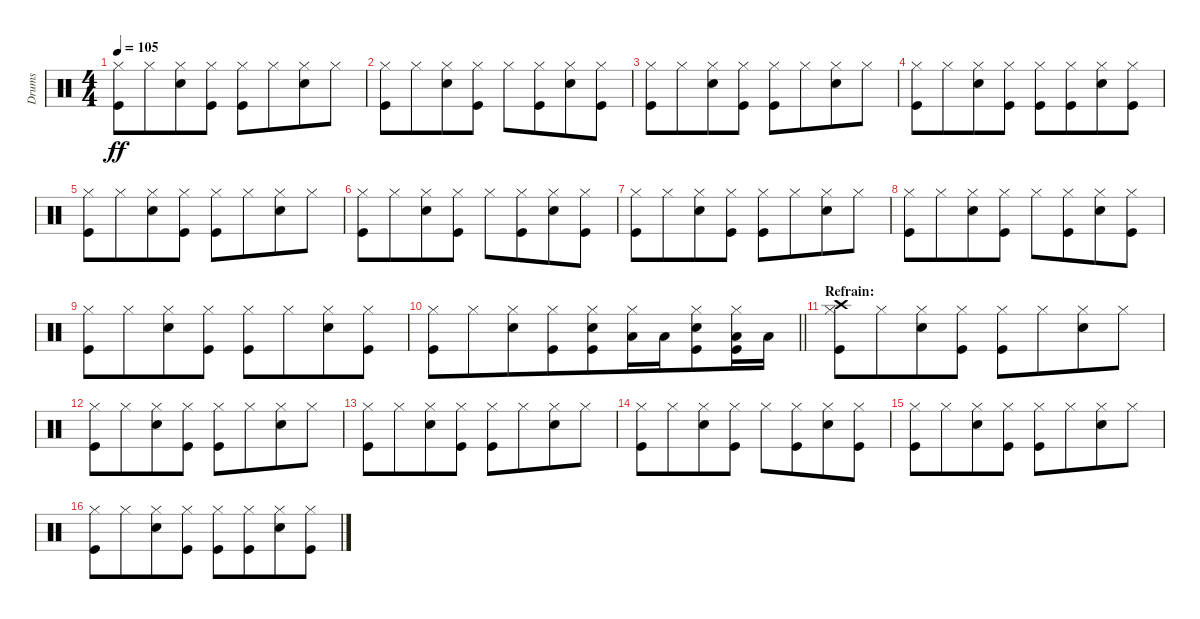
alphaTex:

\track ("Drums" "Drums") {instrument percussion}
\staff {score}
\articulation defaults
\ts (4 4)
\tempo 105
\clef neutral
\ks c
("Hi-Hat (closed)" "Kick (hit)").8{dy ff} "Hi-Hat (closed)".8{beam merge} ("Hi-Hat (closed)" "Snare (hit) 2").8 ("Hi-Hat (closed)" "Kick (hit)").8 ("Hi-Hat (closed)" "Kick (hit)").8 "Hi-Hat (closed)".8{beam merge} ("Hi-Hat (closed)" "Snare (hit) 2").8 "Hi-Hat (closed)".8 |
("Hi-Hat (closed)" "Kick (hit)").8 "Hi-Hat (closed)".8{beam merge} ("Hi-Hat (closed)" "Snare (hit) 2").8 ("Hi-Hat (closed)" "Kick (hit)").8 "Hi-Hat (closed)".8 ("Hi-Hat (closed)" "Kick (hit)").8{beam merge} ("Hi-Hat (closed)" "Snare (hit) 2").8 ("Hi-Hat (closed)" "Kick (hit)").8 |
("Hi-Hat (closed)" "Kick (hit)").8 "Hi-Hat (closed)".8{beam merge} ("Hi-Hat (closed)" "Snare (hit) 2").8 ("Hi-Hat (closed)" "Kick (hit)").8 ("Hi-Hat (closed)" "Kick (hit)").8 "Hi-Hat (closed)".8{beam merge} ("Hi-Hat (closed)" "Snare (hit) 2").8 "Hi-Hat (closed)".8 |
("Hi-Hat (closed)" "Kick (hit)").8 "Hi-Hat (closed)".8{beam merge} ("Hi-Hat (closed)" "Snare (hit) 2").8 ("Hi-Hat (closed)" "Kick (hit)").8 ("Hi-Hat (closed)" "Kick (hit)").8 ("Hi-Hat (closed)" "Kick (hit)").8{beam merge} ("Hi-Hat (closed)" "Snare (hit) 2").8 ("Hi-Hat (closed)" "Kick (hit)").8 |
("Hi-Hat (closed)" "Kick (hit)").8 "Hi-Hat (closed)".8{beam merge} ("Hi-Hat (closed)" "Snare (hit) 2").8 ("Hi-Hat (closed)" "Kick (hit)").8 ("Hi-Hat (closed)" "Kick (hit)").8 "Hi-Hat (closed)".8{beam merge} ("Hi-Hat (closed)" "Snare (hit) 2").8 "Hi-Hat (closed)".8 |
("Hi-Hat (closed)" "Kick (hit)").8 "Hi-Hat (closed)".8{beam merge} ("Hi-Hat (closed)" "Snare (hit) 2").8 ("Hi-Hat (closed)" "Kick (hit)").8 "Hi-Hat (closed)".8 ("Hi-Hat (closed)" "Kick (hit)").8{beam merge} ("Hi-Hat (closed)" "Snare (hit) 2").8 ("Hi-Hat (closed)" "Kick (hit)").8 |
("Hi-Hat (closed)" "Kick (hit)").8 "Hi-Hat (closed)".8{beam merge} ("Hi-Hat (closed)" "Snare (hit) 2").8 ("Hi-Hat (closed)" "Kick (hit)").8 ("Hi-Hat (closed)" "Kick (hit)").8 "Hi-Hat (closed)".8{beam merge} ("Hi-Hat (closed)" "Snare (hit) 2").8 "Hi-Hat (closed)".8 |
("Hi-Hat (closed)" "Kick (hit)").8 "Hi-Hat (closed)".8{beam merge} ("Hi-Hat (closed)" "Snare (hit) 2").8 ("Hi-Hat (closed)" "Kick (hit)").8 "Hi-Hat (closed)".8 ("Hi-Hat (closed)" "Kick (hit)").8{beam merge} ("Hi-Hat (closed)" "Snare (hit) 2").8 ("Hi-Hat (closed)" "Kick (hit)").8 |
("Hi-Hat (closed)" "Kick (hit)").8 "Hi-Hat (closed)".8{beam merge} ("Hi-Hat (closed)" "Snare (hit) 2").8 ("Hi-Hat (closed)" "Kick (hit)").8 ("Hi-Hat (closed)" "Kick (hit)").8 "Hi-Hat (closed)".8{beam merge} ("Hi-Hat (closed)" "Snare (hit) 2").8 ("Hi-Hat (closed)" "Kick (hit)").8 |
\barLineRight lightlight
("Hi-Hat (closed)" "Kick (hit)").8 "Hi-Hat (closed)".8{beam merge} ("Hi-Hat (closed)" "Snare (hit) 2").8 ("Hi-Hat (closed)" "Kick (hit)").8{beam merge} ("Hi-Hat (closed)" "Snare (hit) 2" "Kick (hit)").8{beam merge} ("Hi-Hat (closed)" "Low Tom (hit)").16{beam merge} "Low Tom (hit)".16{beam merge} ("Hi-Hat (closed)" "Snare (hit) 2" "Kick (hit)").8 ("Hi-Hat (closed)" "Low Tom (hit)" "Kick (hit)").16 "Low Tom (hit)".16 |
\section ("" "Refrain:")
("Hi-Hat (closed)" "Crash high (hit)" "Kick (hit)").8 "Hi-Hat (closed)".8{beam merge} ("Hi-Hat (closed)" "Snare (hit) 2").8 ("Hi-Hat (closed)" "Kick (hit)").8 ("Hi-Hat (closed)" "Kick (hit)").8 "Hi-Hat (closed)".8{beam merge} ("Hi-Hat (closed)" "Snare (hit) 2").8 "Hi-Hat (closed)".8 |
("Hi-Hat (closed)" "Kick (hit)").8 "Hi-Hat (closed)".8{beam merge} ("Hi-Hat (closed)" "Snare (hit) 2").8 ("Hi-Hat (closed)" "Kick (hit)").8 ("Hi-Hat (closed)" "Kick (hit)").8 "Hi-Hat (closed)".8{beam merge} ("Hi-Hat (closed)" "Snare (hit) 2").8 "Hi-Hat (closed)".8 |
("Hi-Hat (closed)" "Kick (hit)").8 "Hi-Hat (closed)".8{beam merge} ("Hi-Hat (closed)" "Snare (hit) 2").8 ("Hi-Hat (closed)" "Kick (hit)").8 ("Hi-Hat (closed)" "Kick (hit)").8 "Hi-Hat (closed)".8{beam merge} ("Hi-Hat (closed)" "Snare (hit) 2").8 "Hi-Hat (closed)".8 |
("Hi-Hat (closed)" "Kick (hit)").8 "Hi-Hat (closed)".8{beam merge} ("Hi-Hat (closed)" "Snare (hit) 2").8 ("Hi-Hat (closed)" "Kick (hit)").8 "Hi-Hat (closed)".8 ("Hi-Hat (closed)" "Kick (hit)").8{beam merge} ("Hi-Hat (closed)" "Snare (hit) 2").8 ("Hi-Hat (closed)" "Kick (hit)").8 |
("Hi-Hat (closed)" "Kick (hit)").8 "Hi-Hat (closed)".8{beam merge} ("Hi-Hat (closed)" "Snare (hit) 2").8 ("Hi-Hat (closed)" "Kick (hit)").8 ("Hi-Hat (closed)" "Kick (hit)").8 "Hi-Hat (closed)".8{beam merge} ("Hi-Hat (closed)" "Snare (hit) 2").8 "Hi-Hat (closed)".8 |
("Hi-Hat (closed)" "Kick (hit)").8 "Hi-Hat (closed)".8{beam merge} ("Hi-Hat (closed)" "Snare (hit) 2").8 ("Hi-Hat (closed)" "Kick (hit)").8 ("Hi-Hat (closed)" "Kick (hit)").8 ("Hi-Hat (closed)" "Kick (hit)").8{beam merge} ("Hi-Hat (closed)" "Snare (hit) 2").8 ("Hi-Hat (closed)" "Kick (hit)").8
